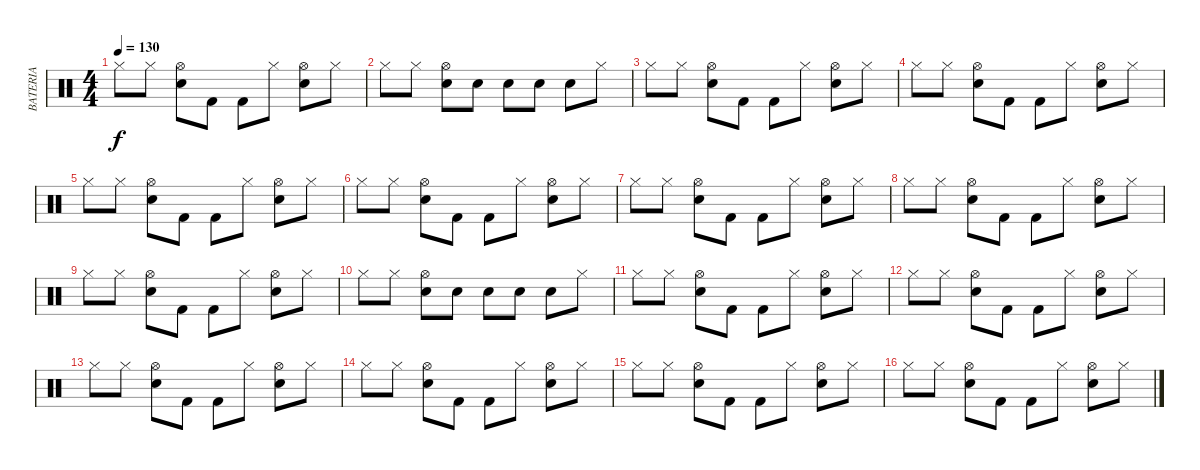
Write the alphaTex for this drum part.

\track ("BATERIA" "BATERIA") {mute instrument percussion}
\staff {score}
\articulation defaults
\ts (4 4)
\tempo 130
\clef neutral
\ks c "Hi-Hat (closed)".8{dy f} "Hi-Hat (closed)".8
("Snare (hit) 2" "Hi-Hat (open)").8 "Kick (hit) 2".8 "Kick (hit) 2".8 "Hi-Hat (closed)".8 ("Snare (hit) 2" "Hi-Hat (open)").8 "Hi-Hat (closed)".8 |
"Hi-Hat (closed)".8 "Hi-Hat (closed)".8 ("Snare (hit) 2" "Hi-Hat (open)").8 "Electric Snare (hit)".8 "Electric Snare (hit)".8 "Electric Snare (hit)".8 "Electric Snare (hit)".8 "Hi-Hat (closed)".8 |
"Hi-Hat (closed)".8 "Hi-Hat (closed)".8 ("Snare (hit) 2" "Hi-Hat (open)").8 "Kick (hit) 2".8 "Kick (hit) 2".8 "Hi-Hat (closed)".8 ("Snare (hit) 2" "Hi-Hat (open)").8 "Hi-Hat (closed)".8 |
"Hi-Hat (closed)".8 "Hi-Hat (closed)".8 ("Snare (hit) 2" "Hi-Hat (open)").8 "Kick (hit) 2".8 "Kick (hit) 2".8 "Hi-Hat (closed)".8 ("Snare (hit) 2" "Hi-Hat (open)").8 "Hi-Hat (closed)".8 |
"Hi-Hat (closed)".8 "Hi-Hat (closed)".8 ("Snare (hit) 2" "Hi-Hat (open)").8 "Kick (hit) 2".8 "Kick (hit) 2".8 "Hi-Hat (closed)".8 ("Snare (hit) 2" "Hi-Hat (open)").8 "Hi-Hat (closed)".8 |
"Hi-Hat (closed)".8 "Hi-Hat (closed)".8 ("Snare (hit) 2" "Hi-Hat (open)").8 "Kick (hit) 2".8 "Kick (hit) 2".8 "Hi-Hat (closed)".8 ("Snare (hit) 2" "Hi-Hat (open)").8 "Hi-Hat (closed)".8 |
"Hi-Hat (closed)".8 "Hi-Hat (closed)".8 ("Snare (hit) 2" "Hi-Hat (open)").8 "Kick (hit) 2".8 "Kick (hit) 2".8 "Hi-Hat (closed)".8 ("Snare (hit) 2" "Hi-Hat (open)").8 "Hi-Hat (closed)".8 |
"Hi-Hat (closed)".8 "Hi-Hat (closed)".8 ("Snare (hit) 2" "Hi-Hat (open)").8 "Kick (hit) 2".8 "Kick (hit) 2".8 "Hi-Hat (closed)".8 ("Snare (hit) 2" "Hi-Hat (open)").8 "Hi-Hat (closed)".8 |
"Hi-Hat (closed)".8 "Hi-Hat (closed)".8 ("Snare (hit) 2" "Hi-Hat (open)").8 "Kick (hit) 2".8 "Kick (hit) 2".8 "Hi-Hat (closed)".8 ("Snare (hit) 2" "Hi-Hat (open)").8 "Hi-Hat (closed)".8 |
"Hi-Hat (closed)".8 "Hi-Hat (closed)".8 ("Snare (hit) 2" "Hi-Hat (open)").8 "Electric Snare (hit)".8 "Electric Snare (hit)".8 "Electric Snare (hit)".8 "Electric Snare (hit)".8 "Hi-Hat (closed)".8 |
"Hi-Hat (closed)".8 "Hi-Hat (closed)".8 ("Snare (hit) 2" "Hi-Hat (open)").8 "Kick (hit) 2".8 "Kick (hit) 2".8 "Hi-Hat (closed)".8 ("Snare (hit) 2" "Hi-Hat (open)").8 "Hi-Hat (closed)".8 |
"Hi-Hat (closed)".8 "Hi-Hat (closed)".8 ("Snare (hit) 2" "Hi-Hat (open)").8 "Kick (hit) 2".8 "Kick (hit) 2".8 "Hi-Hat (closed)".8 ("Snare (hit) 2" "Hi-Hat (open)").8 "Hi-Hat (closed)".8 |
"Hi-Hat (closed)".8 "Hi-Hat (closed)".8 ("Snare (hit) 2" "Hi-Hat (open)").8 "Kick (hit) 2".8 "Kick (hit) 2".8 "Hi-Hat (closed)".8 ("Snare (hit) 2" "Hi-Hat (open)").8 "Hi-Hat (closed)".8 |
"Hi-Hat (closed)".8 "Hi-Hat (closed)".8 ("Snare (hit) 2" "Hi-Hat (open)").8 "Kick (hit) 2".8 "Kick (hit) 2".8 "Hi-Hat (closed)".8 ("Snare (hit) 2" "Hi-Hat (open)").8 "Hi-Hat (closed)".8 |
"Hi-Hat (closed)".8 "Hi-Hat (closed)".8 ("Snare (hit) 2" "Hi-Hat (open)").8 "Kick (hit) 2".8 "Kick (hit) 2".8 "Hi-Hat (closed)".8 ("Snare (hit) 2" "Hi-Hat (open)").8 "Hi-Hat (closed)".8 |
"Hi-Hat (closed)".8 "Hi-Hat (closed)".8 ("Snare (hit) 2" "Hi-Hat (open)").8 "Kick (hit) 2".8 "Kick (hit) 2".8 "Hi-Hat (closed)".8 ("Snare (hit) 2" "Hi-Hat (open)").8 "Hi-Hat (closed)".8
